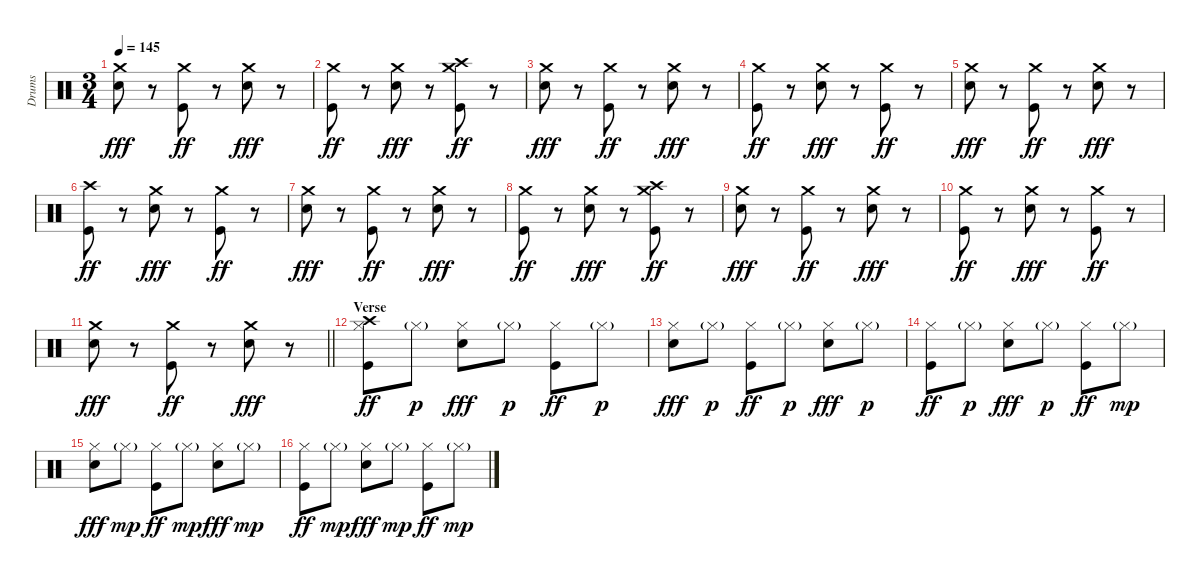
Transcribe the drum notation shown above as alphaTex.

\track ("Drums" "Drums") {instrument percussion}
\staff {score}
\articulation defaults
\ts (3 4)
\tempo 145
\clef neutral
\ks c
("Crash medium (hit)" "Electric Snare (hit)").8{dy fff} r.8 ("Crash medium (hit)" "Kick (hit)").8{dy ff} r.8 ("Crash medium (hit)" "Electric Snare (hit)").8{dy fff} r.8 |
("Crash medium (hit)" "Kick (hit)").8{dy ff} r.8 ("Crash medium (hit)" "Electric Snare (hit)").8{dy fff} r.8 ("Crash high (hit)" "Crash medium (hit)" "Kick (hit)").8{dy ff} r.8 |
("Crash medium (hit)" "Electric Snare (hit)").8{dy fff} r.8 ("Crash medium (hit)" "Kick (hit)").8{dy ff} r.8 ("Crash medium (hit)" "Electric Snare (hit)").8{dy fff} r.8 |
("Crash medium (hit)" "Kick (hit)").8{dy ff} r.8 ("Crash medium (hit)" "Electric Snare (hit)").8{dy fff} r.8 ("Crash medium (hit)" "Kick (hit)").8{dy ff} r.8 |
("Crash medium (hit)" "Electric Snare (hit)").8{dy fff} r.8 ("Crash medium (hit)" "Kick (hit)").8{dy ff} r.8 ("Crash medium (hit)" "Electric Snare (hit)").8{dy fff} r.8 |
("Crash high (hit)" "Kick (hit)").8{dy ff} r.8 ("Crash medium (hit)" "Electric Snare (hit)").8{dy fff} r.8 ("Crash medium (hit)" "Kick (hit)").8{dy ff} r.8 |
("Crash medium (hit)" "Electric Snare (hit)").8{dy fff} r.8 ("Crash medium (hit)" "Kick (hit)").8{dy ff} r.8 ("Crash medium (hit)" "Electric Snare (hit)").8{dy fff} r.8 |
("Crash medium (hit)" "Kick (hit)").8{dy ff} r.8 ("Crash medium (hit)" "Electric Snare (hit)").8{dy fff} r.8 ("Crash high (hit)" "Crash medium (hit)" "Kick (hit)").8{dy ff} r.8 |
("Crash medium (hit)" "Electric Snare (hit)").8{dy fff} r.8 ("Crash medium (hit)" "Kick (hit)").8{dy ff} r.8 ("Crash medium (hit)" "Electric Snare (hit)").8{dy fff} r.8 |
("Crash medium (hit)" "Kick (hit)").8{dy ff} r.8 ("Crash medium (hit)" "Electric Snare (hit)").8{dy fff} r.8 ("Crash medium (hit)" "Kick (hit)").8{dy ff} r.8 |
\barLineRight lightlight
("Crash medium (hit)" "Electric Snare (hit)").8{dy fff} r.8 ("Crash medium (hit)" "Kick (hit)").8{dy ff} r.8 ("Crash medium (hit)" "Electric Snare (hit)").8{dy fff} r.8 |
\section ("" "Verse")
("Crash high (hit)" "Hi-Hat (closed)" "Kick (hit)").8{dy ff} "Hi-Hat (closed)"{g}.8{dy p} ("Hi-Hat (closed)" "Electric Snare (hit)").8{dy fff} "Hi-Hat (closed)"{g}.8{dy p} ("Hi-Hat (closed)" "Kick (hit)").8{dy ff} "Hi-Hat (closed)"{g}.8{dy p} |
("Hi-Hat (closed)" "Electric Snare (hit)").8{dy fff} "Hi-Hat (closed)"{g}.8{dy p} ("Hi-Hat (closed)" "Kick (hit)").8{dy ff} "Hi-Hat (closed)"{g}.8{dy p} ("Hi-Hat (closed)" "Electric Snare (hit)").8{dy fff} "Hi-Hat (closed)"{g}.8{dy p} |
("Hi-Hat (closed)" "Kick (hit)").8{dy ff} "Hi-Hat (closed)"{g}.8{dy p} ("Hi-Hat (closed)" "Electric Snare (hit)").8{dy fff} "Hi-Hat (closed)"{g}.8{dy p} ("Hi-Hat (closed)" "Kick (hit)").8{dy ff} "Hi-Hat (closed)"{g}.8{dy mp} |
("Hi-Hat (closed)" "Electric Snare (hit)").8{dy fff} "Hi-Hat (closed)"{g}.8{dy mp} ("Hi-Hat (closed)" "Kick (hit)").8{dy ff} "Hi-Hat (closed)"{g}.8{dy mp} ("Hi-Hat (closed)" "Electric Snare (hit)").8{dy fff} "Hi-Hat (closed)"{g}.8{dy mp} |
("Hi-Hat (closed)" "Kick (hit)").8{dy ff} "Hi-Hat (closed)"{g}.8{dy mp} ("Hi-Hat (closed)" "Electric Snare (hit)").8{dy fff} "Hi-Hat (closed)"{g}.8{dy mp} ("Hi-Hat (closed)" "Kick (hit)").8{dy ff} "Hi-Hat (closed)"{g}.8{dy mp}
